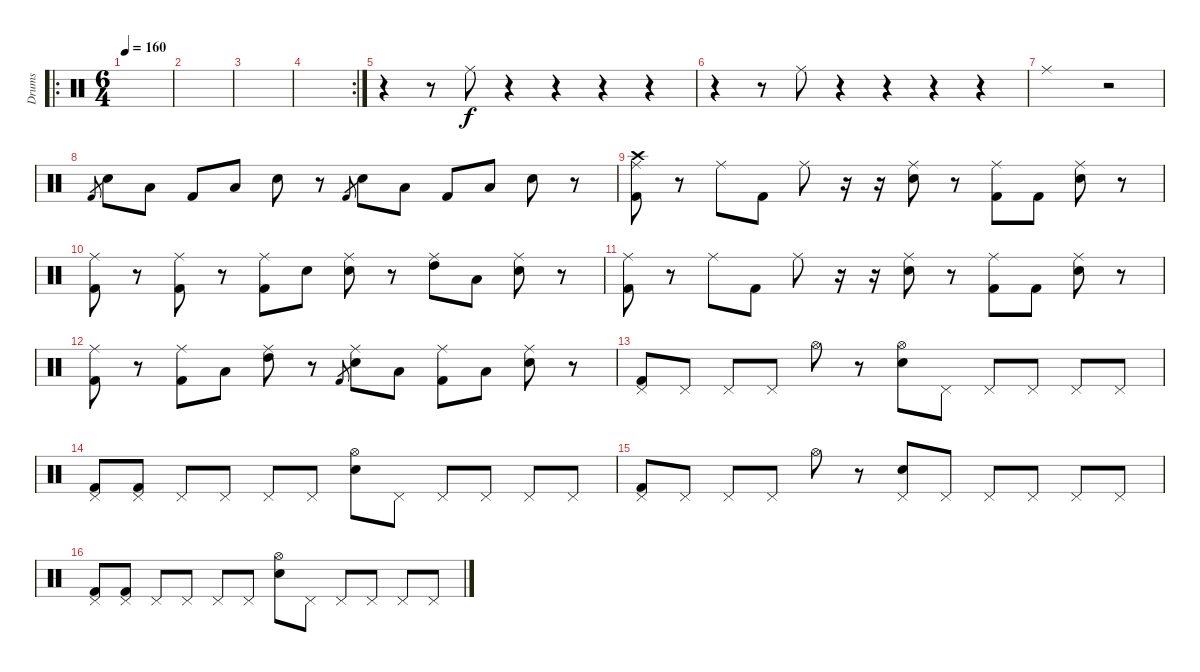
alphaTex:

\track ("Drums" "Drums") {instrument percussion}
\staff {score}
\articulation defaults
\ro
\ts (6 4)
\tempo 160
\clef neutral
\ks c
|
|
|
\rc 2
|
r.4 r.8 "Ride (middle)".8 r.4 r.4 r.4 r.4 |
r.4 r.8 "Ride (middle)".8 r.4 r.4 r.4 r.4 |
"Ride (middle)".1 r.2 |
"Kick (hit) 2".8{gr} "Snare (hit) 2".8 "Low Tom (hit)".8 "Kick (hit) 2".8 "Low Tom (hit)".8 "Snare (hit) 2".8 r.8 "Kick (hit) 2".8{gr} "Snare (hit) 2".8 "Low Tom (hit)".8 "Kick (hit) 2".8 "Low Tom (hit)".8 "Snare (hit) 2".8 r.8 |
("Crash high (hit)" "Ride (middle)" "Kick (hit) 2").8 r.8 "Ride (middle)".8 "Kick (hit) 2".8 "Ride (middle)".8 r.16 r.16 ("Ride (middle)" "Electric Snare (hit)").8 r.8 ("Ride (middle)" "Kick (hit) 2").8 "Kick (hit) 2".8 ("Ride (middle)" "Electric Snare (hit)").8 r.8 |
("Ride (middle)" "Kick (hit) 2").8 r.8 ("Ride (middle)" "Kick (hit) 2").8 r.8 ("Ride (middle)" "Kick (hit) 2").8 "Electric Snare (hit)".8 ("Ride (middle)" "Electric Snare (hit)").8 r.8 ("Ride (middle)" "High Tom (hit)").8 "Low Tom (hit)".8 ("Ride (middle)" "Electric Snare (hit)").8 r.8 |
("Ride (middle)" "Kick (hit) 2").8 r.8 "Ride (middle)".8 "Kick (hit) 2".8 "Ride (middle)".8 r.16 r.16 ("Ride (middle)" "Electric Snare (hit)").8 r.8 ("Ride (middle)" "Kick (hit) 2").8 "Kick (hit) 2".8 ("Ride (middle)" "Electric Snare (hit)").8 r.8 |
("Ride (middle)" "Kick (hit) 2").8 r.8 ("Ride (middle)" "Kick (hit) 2").8 "Low Tom (hit)".8 ("Ride (middle)" "High Tom (hit)").8 r.8 "Kick (hit) 2".8{gr} ("Ride (middle)" "Snare (hit) 2").8 "Low Tom (hit)".8 ("Ride (middle)" "Kick (hit) 2").8 "Low Tom (hit)".8 ("Ride (middle)" "Snare (hit) 2").8 r.8 |
("Pedal Hi-Hat (hit)" "Kick (hit) 2").8 "Pedal Hi-Hat (hit)".8 "Pedal Hi-Hat (hit)".8 "Pedal Hi-Hat (hit)".8 "Hi-Hat (open)".8 r.8 ("Hi-Hat (open)" "Electric Snare (hit)").8 "Pedal Hi-Hat (hit)".8 "Pedal Hi-Hat (hit)".8 "Pedal Hi-Hat (hit)".8 "Pedal Hi-Hat (hit)".8 "Pedal Hi-Hat (hit)".8 |
("Pedal Hi-Hat (hit)" "Kick (hit) 2").8 ("Pedal Hi-Hat (hit)" "Kick (hit) 2").8 "Pedal Hi-Hat (hit)".8 "Pedal Hi-Hat (hit)".8 "Pedal Hi-Hat (hit)".8 "Pedal Hi-Hat (hit)".8 ("Hi-Hat (open)" "Electric Snare (hit)").8 "Pedal Hi-Hat (hit)".8 "Pedal Hi-Hat (hit)".8 "Pedal Hi-Hat (hit)".8 "Pedal Hi-Hat (hit)".8 "Pedal Hi-Hat (hit)".8 |
("Pedal Hi-Hat (hit)" "Kick (hit) 2").8 "Pedal Hi-Hat (hit)".8 "Pedal Hi-Hat (hit)".8 "Pedal Hi-Hat (hit)".8 "Hi-Hat (open)".8 r.8 ("Pedal Hi-Hat (hit)" "Electric Snare (hit)").8 "Pedal Hi-Hat (hit)".8 "Pedal Hi-Hat (hit)".8 "Pedal Hi-Hat (hit)".8 "Pedal Hi-Hat (hit)".8 "Pedal Hi-Hat (hit)".8 |
("Pedal Hi-Hat (hit)" "Kick (hit) 2").8 ("Pedal Hi-Hat (hit)" "Kick (hit) 2").8 "Pedal Hi-Hat (hit)".8 "Pedal Hi-Hat (hit)".8 "Pedal Hi-Hat (hit)".8 "Pedal Hi-Hat (hit)".8 ("Hi-Hat (open)" "Electric Snare (hit)").8 "Pedal Hi-Hat (hit)".8 "Pedal Hi-Hat (hit)".8 "Pedal Hi-Hat (hit)".8 "Pedal Hi-Hat (hit)".8 "Pedal Hi-Hat (hit)".8
